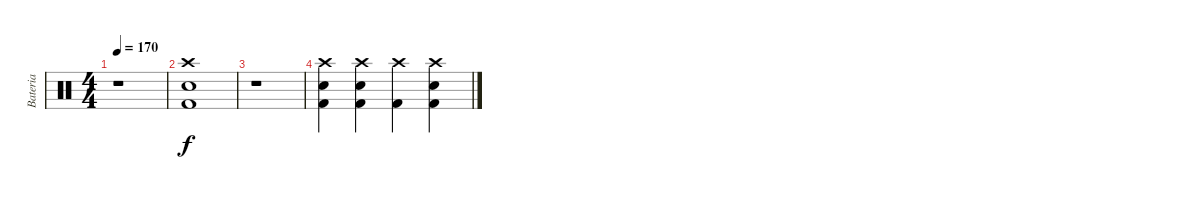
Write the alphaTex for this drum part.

\track ("Bateria" "Bateria") {instrument percussion}
\staff {score}
\articulation defaults
\ts (4 4)
\tempo 170
\clef neutral
\ks c
r.1{dy f} |
("Crash high (hit)" "Snare (hit) 2" "Kick (hit) 2").1 |
r.1 |
("Crash high (hit)" "Snare (hit) 2" "Kick (hit) 2").4 ("Crash high (hit)" "Snare (hit) 2" "Kick (hit) 2").4 ("Crash high (hit)" "Kick (hit) 2").4 ("Crash high (hit)" "Snare (hit) 2" "Kick (hit) 2").4
